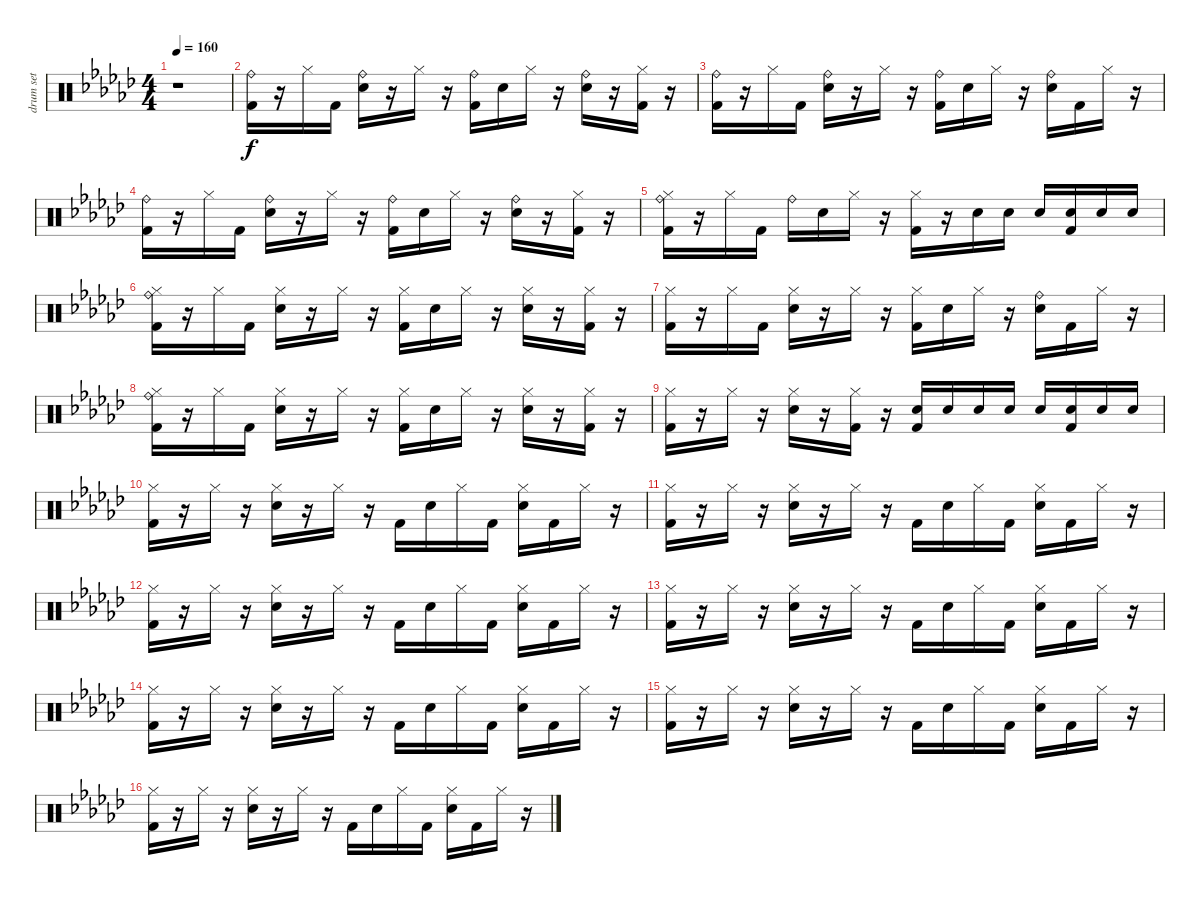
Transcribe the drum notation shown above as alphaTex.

\track ("drum set" "drum set") {instrument percussion}
\staff {score}
\articulation defaults
\ts (4 4)
\tempo 160
\clef neutral
\ks gb
r.1{dy f} |
("Ride (bell)" "Kick (hit) 2").16 r.16 "Hi-Hat (closed)".16 "Kick (hit) 2".16 ("Ride (bell)" "Snare (hit) 2").16 r.16 "Hi-Hat (closed)".16 r.16 ("Ride (bell)" "Kick (hit) 2").16 "Snare (hit) 2".16 "Hi-Hat (closed)".16 r.16 ("Ride (bell)" "Snare (hit) 2").16 r.16 ("Hi-Hat (closed)" "Kick (hit) 2").16 r.16 |
("Ride (bell)" "Kick (hit) 2").16 r.16 "Hi-Hat (closed)".16 "Kick (hit) 2".16 ("Ride (bell)" "Snare (hit) 2").16 r.16 "Hi-Hat (closed)".16 r.16 ("Ride (bell)" "Kick (hit) 2").16 "Snare (hit) 2".16 "Hi-Hat (closed)".16 r.16 ("Ride (bell)" "Snare (hit) 2").16 "Kick (hit) 2".16 "Hi-Hat (closed)".16 r.16 |
("Ride (bell)" "Kick (hit) 2").16 r.16 "Hi-Hat (closed)".16 "Kick (hit) 2".16 ("Ride (bell)" "Snare (hit) 2").16 r.16 "Hi-Hat (closed)".16 r.16 ("Ride (bell)" "Kick (hit) 2").16 "Snare (hit) 2".16 "Hi-Hat (closed)".16 r.16 ("Ride (bell)" "Snare (hit) 2").16 r.16 ("Hi-Hat (closed)" "Kick (hit) 2").16 r.16 |
("Hi-Hat (closed)" "Kick (hit) 2" "Ride (bell)").16 r.16 "Hi-Hat (closed)".16 "Kick (hit) 2".16 "Ride (bell)".16 "Snare (hit) 2".16 "Hi-Hat (closed)".16 r.16 ("Hi-Hat (closed)" "Kick (hit) 2").16 r.16 "Snare (hit) 2".16 "Snare (hit) 2".16 "Snare (hit) 2".16 ("Kick (hit) 2" "Snare (hit) 2").16 "Snare (hit) 2".16 "Snare (hit) 2".16 |
("Hi-Hat (closed)" "Kick (hit) 2" "Ride (bell)").16 r.16 "Hi-Hat (closed)".16 "Kick (hit) 2".16 ("Hi-Hat (closed)" "Snare (hit) 2").16 r.16 "Hi-Hat (closed)".16 r.16 ("Hi-Hat (closed)" "Kick (hit) 2").16 "Snare (hit) 2".16 "Hi-Hat (closed)".16 r.16 ("Hi-Hat (closed)" "Snare (hit) 2").16 r.16 ("Hi-Hat (closed)" "Kick (hit) 2").16 r.16 |
("Hi-Hat (closed)" "Kick (hit) 2").16 r.16 "Hi-Hat (closed)".16 "Kick (hit) 2".16 ("Hi-Hat (closed)" "Snare (hit) 2").16 r.16 "Hi-Hat (closed)".16 r.16 ("Hi-Hat (closed)" "Kick (hit) 2").16 "Snare (hit) 2".16 "Hi-Hat (closed)".16 r.16 ("Ride (bell)" "Snare (hit) 2").16 "Kick (hit) 2".16 "Hi-Hat (closed)".16 r.16 |
("Hi-Hat (closed)" "Kick (hit) 2" "Ride (bell)").16 r.16 "Hi-Hat (closed)".16 "Kick (hit) 2".16 ("Hi-Hat (closed)" "Snare (hit) 2").16 r.16 "Hi-Hat (closed)".16 r.16 ("Hi-Hat (closed)" "Kick (hit) 2").16 "Snare (hit) 2".16 "Hi-Hat (closed)".16 r.16 ("Hi-Hat (closed)" "Snare (hit) 2").16 r.16 ("Hi-Hat (closed)" "Kick (hit) 2").16 r.16 |
("Hi-Hat (closed)" "Kick (hit) 2").16 r.16 "Hi-Hat (closed)".16 r.16 ("Hi-Hat (closed)" "Snare (hit) 2").16 r.16 ("Hi-Hat (closed)" "Kick (hit) 2").16 r.16 ("Snare (hit) 2" "Kick (hit) 2").16 "Snare (hit) 2".16 "Snare (hit) 2".16 "Snare (hit) 2".16 "Snare (hit) 2".16 ("Snare (hit) 2" "Kick (hit) 2").16 "Snare (hit) 2".16 "Snare (hit) 2".16 |
("Hi-Hat (closed)" "Kick (hit) 2").16 r.16 "Hi-Hat (closed)".16 r.16 ("Hi-Hat (closed)" "Snare (hit) 2").16 r.16 "Hi-Hat (closed)".16 r.16 "Kick (hit) 2".16 "Snare (hit) 2".16 "Hi-Hat (closed)".16 "Kick (hit) 2".16 ("Hi-Hat (closed)" "Snare (hit) 2").16 "Kick (hit) 2".16 "Hi-Hat (closed)".16 r.16 |
("Hi-Hat (closed)" "Kick (hit) 2").16 r.16 "Hi-Hat (closed)".16 r.16 ("Hi-Hat (closed)" "Snare (hit) 2").16 r.16 "Hi-Hat (closed)".16 r.16 "Kick (hit) 2".16 "Snare (hit) 2".16 "Hi-Hat (closed)".16 "Kick (hit) 2".16 ("Hi-Hat (closed)" "Snare (hit) 2").16 "Kick (hit) 2".16 "Hi-Hat (closed)".16 r.16 |
("Hi-Hat (closed)" "Kick (hit) 2").16 r.16 "Hi-Hat (closed)".16 r.16 ("Hi-Hat (closed)" "Snare (hit) 2").16 r.16 "Hi-Hat (closed)".16 r.16 "Kick (hit) 2".16 "Snare (hit) 2".16 "Hi-Hat (closed)".16 "Kick (hit) 2".16 ("Hi-Hat (closed)" "Snare (hit) 2").16 "Kick (hit) 2".16 "Hi-Hat (closed)".16 r.16 |
("Hi-Hat (closed)" "Kick (hit) 2").16 r.16 "Hi-Hat (closed)".16 r.16 ("Hi-Hat (closed)" "Snare (hit) 2").16 r.16 "Hi-Hat (closed)".16 r.16 "Kick (hit) 2".16 "Snare (hit) 2".16 "Hi-Hat (closed)".16 "Kick (hit) 2".16 ("Hi-Hat (closed)" "Snare (hit) 2").16 "Kick (hit) 2".16 "Hi-Hat (closed)".16 r.16 |
("Hi-Hat (closed)" "Kick (hit) 2").16 r.16 "Hi-Hat (closed)".16 r.16 ("Hi-Hat (closed)" "Snare (hit) 2").16 r.16 "Hi-Hat (closed)".16 r.16 "Kick (hit) 2".16 "Snare (hit) 2".16 "Hi-Hat (closed)".16 "Kick (hit) 2".16 ("Hi-Hat (closed)" "Snare (hit) 2").16 "Kick (hit) 2".16 "Hi-Hat (closed)".16 r.16 |
("Hi-Hat (closed)" "Kick (hit) 2").16 r.16 "Hi-Hat (closed)".16 r.16 ("Hi-Hat (closed)" "Snare (hit) 2").16 r.16 "Hi-Hat (closed)".16 r.16 "Kick (hit) 2".16 "Snare (hit) 2".16 "Hi-Hat (closed)".16 "Kick (hit) 2".16 ("Hi-Hat (closed)" "Snare (hit) 2").16 "Kick (hit) 2".16 "Hi-Hat (closed)".16 r.16 |
("Hi-Hat (closed)" "Kick (hit) 2").16 r.16 "Hi-Hat (closed)".16 r.16 ("Hi-Hat (closed)" "Snare (hit) 2").16 r.16 "Hi-Hat (closed)".16 r.16 "Kick (hit) 2".16 "Snare (hit) 2".16 "Hi-Hat (closed)".16 "Kick (hit) 2".16 ("Hi-Hat (closed)" "Snare (hit) 2").16 "Kick (hit) 2".16 "Hi-Hat (closed)".16 r.16
